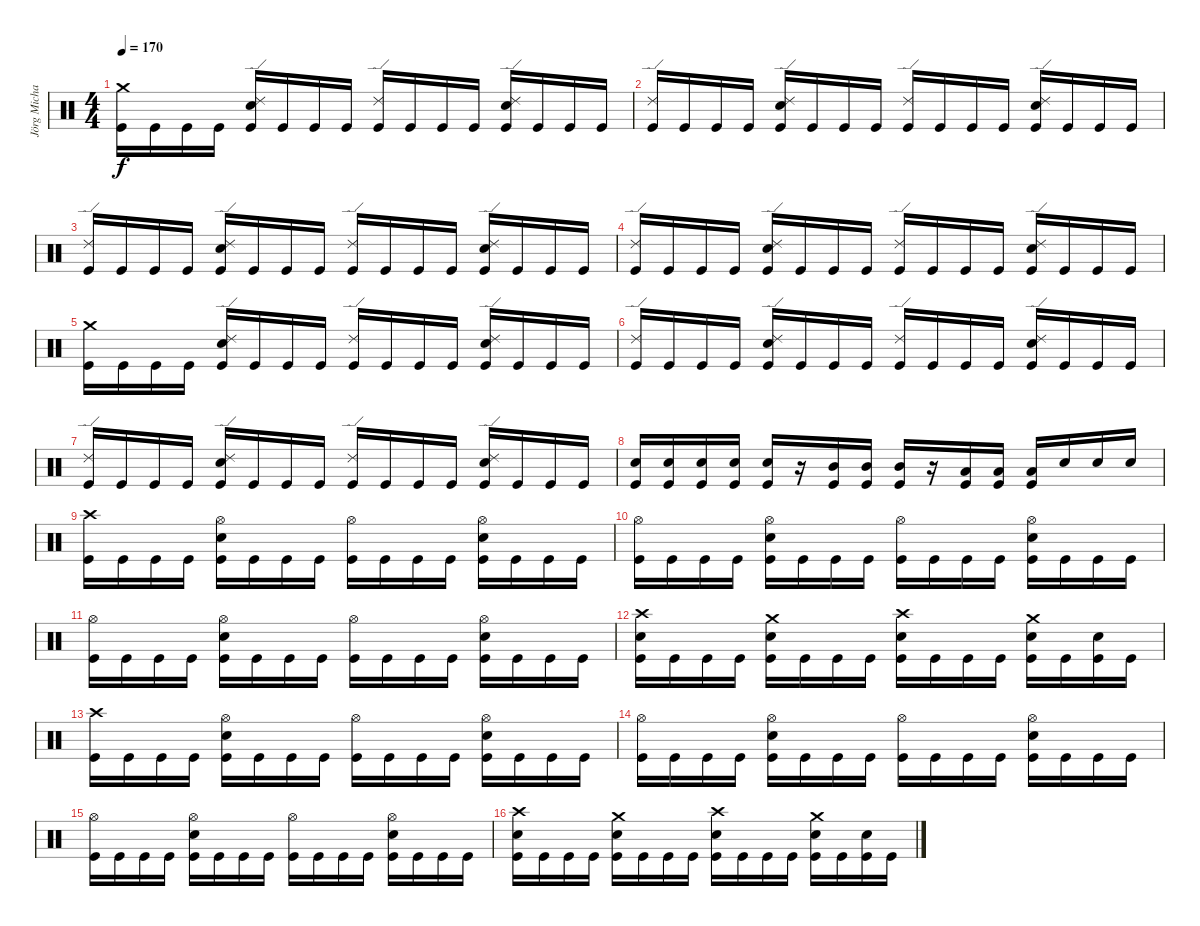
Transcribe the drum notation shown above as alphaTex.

\track ("Jörg Michael" "Jörg Micha") {instrument percussion}
\staff {score}
\articulation defaults
\ts (4 4)
\tempo 170
\clef neutral
\ks c
("Crash medium (hit)" "Kick (hit)").16{dy f} "Kick (hit)".16 "Kick (hit)".16 "Kick (hit)".16 ("Ride (edge) 2" "Electric Snare (hit)" "Kick (hit)").16 "Kick (hit)".16 "Kick (hit)".16 "Kick (hit)".16 ("Ride (edge) 2" "Kick (hit)").16 "Kick (hit)".16 "Kick (hit)".16 "Kick (hit)".16 ("Ride (edge) 2" "Electric Snare (hit)" "Kick (hit)").16 "Kick (hit)".16 "Kick (hit)".16 "Kick (hit)".16 |
("Ride (edge) 2" "Kick (hit)").16 "Kick (hit)".16 "Kick (hit)".16 "Kick (hit)".16 ("Ride (edge) 2" "Electric Snare (hit)" "Kick (hit)").16 "Kick (hit)".16 "Kick (hit)".16 "Kick (hit)".16 ("Ride (edge) 2" "Kick (hit)").16 "Kick (hit)".16 "Kick (hit)".16 "Kick (hit)".16 ("Ride (edge) 2" "Electric Snare (hit)" "Kick (hit)").16 "Kick (hit)".16 "Kick (hit)".16 "Kick (hit)".16 |
("Ride (edge) 2" "Kick (hit)").16 "Kick (hit)".16 "Kick (hit)".16 "Kick (hit)".16 ("Ride (edge) 2" "Electric Snare (hit)" "Kick (hit)").16 "Kick (hit)".16 "Kick (hit)".16 "Kick (hit)".16 ("Ride (edge) 2" "Kick (hit)").16 "Kick (hit)".16 "Kick (hit)".16 "Kick (hit)".16 ("Ride (edge) 2" "Electric Snare (hit)" "Kick (hit)").16 "Kick (hit)".16 "Kick (hit)".16 "Kick (hit)".16 |
("Ride (edge) 2" "Kick (hit)").16 "Kick (hit)".16 "Kick (hit)".16 "Kick (hit)".16 ("Ride (edge) 2" "Electric Snare (hit)" "Kick (hit)").16 "Kick (hit)".16 "Kick (hit)".16 "Kick (hit)".16 ("Ride (edge) 2" "Kick (hit)").16 "Kick (hit)".16 "Kick (hit)".16 "Kick (hit)".16 ("Ride (edge) 2" "Electric Snare (hit)" "Kick (hit)").16 "Kick (hit)".16 "Kick (hit)".16 "Kick (hit)".16 |
("Crash medium (hit)" "Kick (hit)").16 "Kick (hit)".16 "Kick (hit)".16 "Kick (hit)".16 ("Ride (edge) 2" "Electric Snare (hit)" "Kick (hit)").16 "Kick (hit)".16 "Kick (hit)".16 "Kick (hit)".16 ("Ride (edge) 2" "Kick (hit)").16 "Kick (hit)".16 "Kick (hit)".16 "Kick (hit)".16 ("Ride (edge) 2" "Electric Snare (hit)" "Kick (hit)").16 "Kick (hit)".16 "Kick (hit)".16 "Kick (hit)".16 |
("Ride (edge) 2" "Kick (hit)").16 "Kick (hit)".16 "Kick (hit)".16 "Kick (hit)".16 ("Ride (edge) 2" "Electric Snare (hit)" "Kick (hit)").16 "Kick (hit)".16 "Kick (hit)".16 "Kick (hit)".16 ("Ride (edge) 2" "Kick (hit)").16 "Kick (hit)".16 "Kick (hit)".16 "Kick (hit)".16 ("Ride (edge) 2" "Electric Snare (hit)" "Kick (hit)").16 "Kick (hit)".16 "Kick (hit)".16 "Kick (hit)".16 |
("Ride (edge) 2" "Kick (hit)").16 "Kick (hit)".16 "Kick (hit)".16 "Kick (hit)".16 ("Ride (edge) 2" "Electric Snare (hit)" "Kick (hit)").16 "Kick (hit)".16 "Kick (hit)".16 "Kick (hit)".16 ("Ride (edge) 2" "Kick (hit)").16 "Kick (hit)".16 "Kick (hit)".16 "Kick (hit)".16 ("Ride (edge) 2" "Electric Snare (hit)" "Kick (hit)").16 "Kick (hit)".16 "Kick (hit)".16 "Kick (hit)".16 |
("Electric Snare (hit)" "Kick (hit)").16 ("Electric Snare (hit)" "Kick (hit)").16 ("Electric Snare (hit)" "Kick (hit)").16 ("Electric Snare (hit)" "Kick (hit)").16 ("Electric Snare (hit)" "Kick (hit)").16 r.16 ("Mid Tom (hit)" "Kick (hit)").16 ("Mid Tom (hit)" "Kick (hit)").16 ("Mid Tom (hit)" "Kick (hit)").16 r.16 ("Low Tom (hit)" "Kick (hit)").16 ("Low Tom (hit)" "Kick (hit)").16 ("Low Tom (hit)" "Kick (hit)").16 "Electric Snare (hit)".16 "Electric Snare (hit)".16 "Electric Snare (hit)".16 |
("Crash high (hit)" "Kick (hit)").16 "Kick (hit)".16 "Kick (hit)".16 "Kick (hit)".16 ("Hi-Hat (open)" "Electric Snare (hit)" "Kick (hit)").16 "Kick (hit)".16 "Kick (hit)".16 "Kick (hit)".16 ("Hi-Hat (open)" "Kick (hit)").16 "Kick (hit)".16 "Kick (hit)".16 "Kick (hit)".16 ("Hi-Hat (open)" "Electric Snare (hit)" "Kick (hit)").16 "Kick (hit)".16 "Kick (hit)".16 "Kick (hit)".16 |
("Hi-Hat (open)" "Kick (hit)").16 "Kick (hit)".16 "Kick (hit)".16 "Kick (hit)".16 ("Hi-Hat (open)" "Electric Snare (hit)" "Kick (hit)").16 "Kick (hit)".16 "Kick (hit)".16 "Kick (hit)".16 ("Hi-Hat (open)" "Kick (hit)").16 "Kick (hit)".16 "Kick (hit)".16 "Kick (hit)".16 ("Hi-Hat (open)" "Electric Snare (hit)" "Kick (hit)").16 "Kick (hit)".16 "Kick (hit)".16 "Kick (hit)".16 |
("Hi-Hat (open)" "Kick (hit)").16 "Kick (hit)".16 "Kick (hit)".16 "Kick (hit)".16 ("Hi-Hat (open)" "Electric Snare (hit)" "Kick (hit)").16 "Kick (hit)".16 "Kick (hit)".16 "Kick (hit)".16 ("Hi-Hat (open)" "Kick (hit)").16 "Kick (hit)".16 "Kick (hit)".16 "Kick (hit)".16 ("Hi-Hat (open)" "Electric Snare (hit)" "Kick (hit)").16 "Kick (hit)".16 "Kick (hit)".16 "Kick (hit)".16 |
("Crash high (hit)" "Electric Snare (hit)" "Kick (hit)").16 "Kick (hit)".16 "Kick (hit)".16 "Kick (hit)".16 ("Crash medium (hit)" "Electric Snare (hit)" "Kick (hit)").16 "Kick (hit)".16 "Kick (hit)".16 "Kick (hit)".16 ("Crash high (hit)" "Electric Snare (hit)" "Kick (hit)").16 "Kick (hit)".16 "Kick (hit)".16 "Kick (hit)".16 ("Crash medium (hit)" "Electric Snare (hit)" "Kick (hit)").16 "Kick (hit)".16 ("Electric Snare (hit)" "Kick (hit)").16 "Kick (hit)".16 |
("Crash high (hit)" "Kick (hit)").16 "Kick (hit)".16 "Kick (hit)".16 "Kick (hit)".16 ("Hi-Hat (open)" "Electric Snare (hit)" "Kick (hit)").16 "Kick (hit)".16 "Kick (hit)".16 "Kick (hit)".16 ("Hi-Hat (open)" "Kick (hit)").16 "Kick (hit)".16 "Kick (hit)".16 "Kick (hit)".16 ("Hi-Hat (open)" "Electric Snare (hit)" "Kick (hit)").16 "Kick (hit)".16 "Kick (hit)".16 "Kick (hit)".16 |
("Hi-Hat (open)" "Kick (hit)").16 "Kick (hit)".16 "Kick (hit)".16 "Kick (hit)".16 ("Hi-Hat (open)" "Electric Snare (hit)" "Kick (hit)").16 "Kick (hit)".16 "Kick (hit)".16 "Kick (hit)".16 ("Hi-Hat (open)" "Kick (hit)").16 "Kick (hit)".16 "Kick (hit)".16 "Kick (hit)".16 ("Hi-Hat (open)" "Electric Snare (hit)" "Kick (hit)").16 "Kick (hit)".16 "Kick (hit)".16 "Kick (hit)".16 |
("Hi-Hat (open)" "Kick (hit)").16 "Kick (hit)".16 "Kick (hit)".16 "Kick (hit)".16 ("Hi-Hat (open)" "Electric Snare (hit)" "Kick (hit)").16 "Kick (hit)".16 "Kick (hit)".16 "Kick (hit)".16 ("Hi-Hat (open)" "Kick (hit)").16 "Kick (hit)".16 "Kick (hit)".16 "Kick (hit)".16 ("Hi-Hat (open)" "Electric Snare (hit)" "Kick (hit)").16 "Kick (hit)".16 "Kick (hit)".16 "Kick (hit)".16 |
("Crash high (hit)" "Electric Snare (hit)" "Kick (hit)").16 "Kick (hit)".16 "Kick (hit)".16 "Kick (hit)".16 ("Crash medium (hit)" "Electric Snare (hit)" "Kick (hit)").16 "Kick (hit)".16 "Kick (hit)".16 "Kick (hit)".16 ("Crash high (hit)" "Electric Snare (hit)" "Kick (hit)").16 "Kick (hit)".16 "Kick (hit)".16 "Kick (hit)".16 ("Crash medium (hit)" "Electric Snare (hit)" "Kick (hit)").16 "Kick (hit)".16 ("Electric Snare (hit)" "Kick (hit)").16 "Kick (hit)".16
